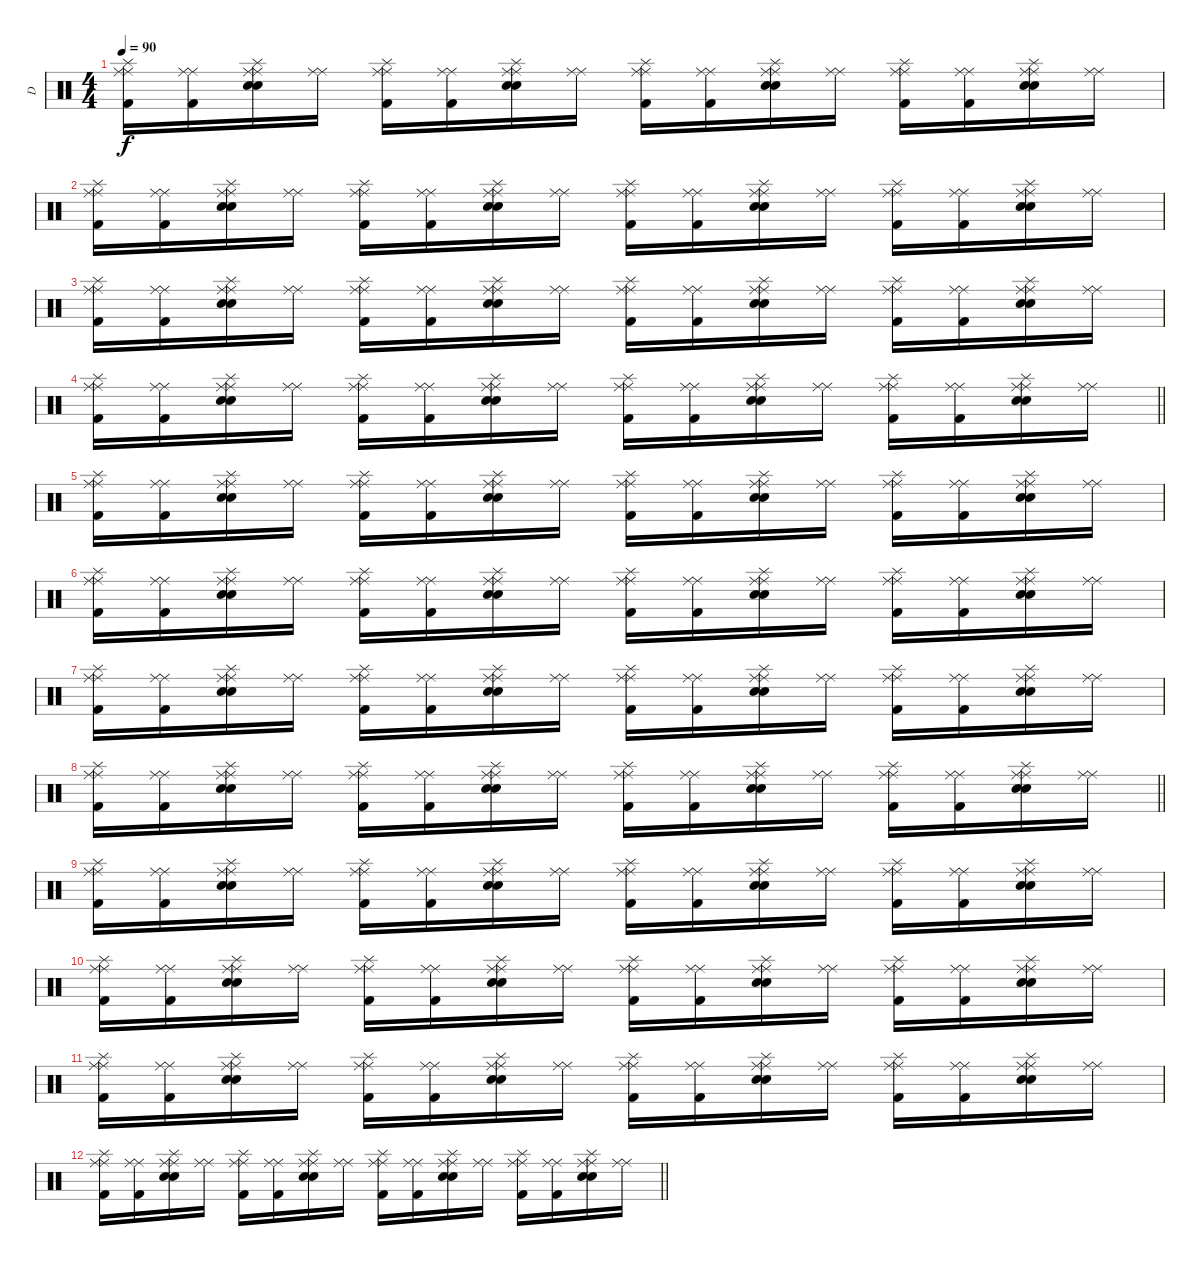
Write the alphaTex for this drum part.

\track ("D" "D") {instrument percussion}
\staff {score}
\articulation defaults
\ts (4 4)
\tempo 90
\clef neutral
\ks c
("Splash (hit)" "Kick (hit) 2" "Ride (middle)" "Ride (middle)").16{dy f} ("Kick (hit) 2" "Ride (middle)" "Ride (middle)").16 ("Splash (hit)" "Electric Snare (hit)" "Electric Snare (hit)" "Ride (middle)" "Ride (middle)").16 ("Ride (middle)" "Ride (middle)").16 ("Splash (hit)" "Kick (hit) 2" "Ride (middle)" "Ride (middle)").16 ("Kick (hit) 2" "Ride (middle)" "Ride (middle)").16 ("Splash (hit)" "Electric Snare (hit)" "Electric Snare (hit)" "Ride (middle)" "Ride (middle)").16 ("Ride (middle)" "Ride (middle)").16 ("Splash (hit)" "Kick (hit) 2" "Ride (middle)" "Ride (middle)").16 ("Kick (hit) 2" "Ride (middle)" "Ride (middle)").16 ("Splash (hit)" "Electric Snare (hit)" "Electric Snare (hit)" "Ride (middle)" "Ride (middle)").16 ("Ride (middle)" "Ride (middle)").16 ("Splash (hit)" "Kick (hit) 2" "Ride (middle)" "Ride (middle)").16 ("Kick (hit) 2" "Ride (middle)" "Ride (middle)").16 ("Splash (hit)" "Electric Snare (hit)" "Electric Snare (hit)" "Ride (middle)" "Ride (middle)").16 ("Ride (middle)" "Ride (middle)").16 |
("Splash (hit)" "Kick (hit) 2" "Ride (middle)" "Ride (middle)").16 ("Kick (hit) 2" "Ride (middle)" "Ride (middle)").16 ("Splash (hit)" "Electric Snare (hit)" "Electric Snare (hit)" "Ride (middle)" "Ride (middle)").16 ("Ride (middle)" "Ride (middle)").16 ("Splash (hit)" "Kick (hit) 2" "Ride (middle)" "Ride (middle)").16 ("Kick (hit) 2" "Ride (middle)" "Ride (middle)").16 ("Splash (hit)" "Electric Snare (hit)" "Electric Snare (hit)" "Ride (middle)" "Ride (middle)").16 ("Ride (middle)" "Ride (middle)").16 ("Splash (hit)" "Kick (hit) 2" "Ride (middle)" "Ride (middle)").16 ("Kick (hit) 2" "Ride (middle)" "Ride (middle)").16 ("Splash (hit)" "Electric Snare (hit)" "Electric Snare (hit)" "Ride (middle)" "Ride (middle)").16 ("Ride (middle)" "Ride (middle)").16 ("Splash (hit)" "Kick (hit) 2" "Ride (middle)" "Ride (middle)").16 ("Kick (hit) 2" "Ride (middle)" "Ride (middle)").16 ("Splash (hit)" "Electric Snare (hit)" "Electric Snare (hit)" "Ride (middle)" "Ride (middle)").16 ("Ride (middle)" "Ride (middle)").16 |
("Splash (hit)" "Kick (hit) 2" "Ride (middle)" "Ride (middle)").16 ("Kick (hit) 2" "Ride (middle)" "Ride (middle)").16 ("Splash (hit)" "Electric Snare (hit)" "Electric Snare (hit)" "Ride (middle)" "Ride (middle)").16 ("Ride (middle)" "Ride (middle)").16 ("Splash (hit)" "Kick (hit) 2" "Ride (middle)" "Ride (middle)").16 ("Kick (hit) 2" "Ride (middle)" "Ride (middle)").16 ("Splash (hit)" "Electric Snare (hit)" "Electric Snare (hit)" "Ride (middle)" "Ride (middle)").16 ("Ride (middle)" "Ride (middle)").16 ("Splash (hit)" "Kick (hit) 2" "Ride (middle)" "Ride (middle)").16 ("Kick (hit) 2" "Ride (middle)" "Ride (middle)").16 ("Splash (hit)" "Electric Snare (hit)" "Electric Snare (hit)" "Ride (middle)" "Ride (middle)").16 ("Ride (middle)" "Ride (middle)").16 ("Splash (hit)" "Kick (hit) 2" "Ride (middle)" "Ride (middle)").16 ("Kick (hit) 2" "Ride (middle)" "Ride (middle)").16 ("Splash (hit)" "Electric Snare (hit)" "Electric Snare (hit)" "Ride (middle)" "Ride (middle)").16 ("Ride (middle)" "Ride (middle)").16 |
\barLineRight lightlight
("Splash (hit)" "Kick (hit) 2" "Ride (middle)" "Ride (middle)").16 ("Kick (hit) 2" "Ride (middle)" "Ride (middle)").16 ("Splash (hit)" "Electric Snare (hit)" "Electric Snare (hit)" "Ride (middle)" "Ride (middle)").16 ("Ride (middle)" "Ride (middle)").16 ("Splash (hit)" "Kick (hit) 2" "Ride (middle)" "Ride (middle)").16 ("Kick (hit) 2" "Ride (middle)" "Ride (middle)").16 ("Splash (hit)" "Electric Snare (hit)" "Electric Snare (hit)" "Ride (middle)" "Ride (middle)").16 ("Ride (middle)" "Ride (middle)").16 ("Splash (hit)" "Kick (hit) 2" "Ride (middle)" "Ride (middle)").16 ("Kick (hit) 2" "Ride (middle)" "Ride (middle)").16 ("Splash (hit)" "Electric Snare (hit)" "Electric Snare (hit)" "Ride (middle)" "Ride (middle)").16 ("Ride (middle)" "Ride (middle)").16 ("Splash (hit)" "Kick (hit) 2" "Ride (middle)" "Ride (middle)").16 ("Kick (hit) 2" "Ride (middle)" "Ride (middle)").16 ("Splash (hit)" "Electric Snare (hit)" "Electric Snare (hit)" "Ride (middle)" "Ride (middle)").16 ("Ride (middle)" "Ride (middle)").16 |
("Splash (hit)" "Kick (hit) 2" "Ride (middle)" "Ride (middle)").16 ("Kick (hit) 2" "Ride (middle)" "Ride (middle)").16 ("Splash (hit)" "Electric Snare (hit)" "Electric Snare (hit)" "Ride (middle)" "Ride (middle)").16 ("Ride (middle)" "Ride (middle)").16 ("Splash (hit)" "Kick (hit) 2" "Ride (middle)" "Ride (middle)").16 ("Kick (hit) 2" "Ride (middle)" "Ride (middle)").16 ("Splash (hit)" "Electric Snare (hit)" "Electric Snare (hit)" "Ride (middle)" "Ride (middle)").16 ("Ride (middle)" "Ride (middle)").16 ("Splash (hit)" "Kick (hit) 2" "Ride (middle)" "Ride (middle)").16 ("Kick (hit) 2" "Ride (middle)" "Ride (middle)").16 ("Splash (hit)" "Electric Snare (hit)" "Electric Snare (hit)" "Ride (middle)" "Ride (middle)").16 ("Ride (middle)" "Ride (middle)").16 ("Splash (hit)" "Kick (hit) 2" "Ride (middle)" "Ride (middle)").16 ("Kick (hit) 2" "Ride (middle)" "Ride (middle)").16 ("Splash (hit)" "Electric Snare (hit)" "Electric Snare (hit)" "Ride (middle)" "Ride (middle)").16 ("Ride (middle)" "Ride (middle)").16 |
("Splash (hit)" "Kick (hit) 2" "Ride (middle)" "Ride (middle)").16 ("Kick (hit) 2" "Ride (middle)" "Ride (middle)").16 ("Splash (hit)" "Electric Snare (hit)" "Electric Snare (hit)" "Ride (middle)" "Ride (middle)").16 ("Ride (middle)" "Ride (middle)").16 ("Splash (hit)" "Kick (hit) 2" "Ride (middle)" "Ride (middle)").16 ("Kick (hit) 2" "Ride (middle)" "Ride (middle)").16 ("Splash (hit)" "Electric Snare (hit)" "Electric Snare (hit)" "Ride (middle)" "Ride (middle)").16 ("Ride (middle)" "Ride (middle)").16 ("Splash (hit)" "Kick (hit) 2" "Ride (middle)" "Ride (middle)").16 ("Kick (hit) 2" "Ride (middle)" "Ride (middle)").16 ("Splash (hit)" "Electric Snare (hit)" "Electric Snare (hit)" "Ride (middle)" "Ride (middle)").16 ("Ride (middle)" "Ride (middle)").16 ("Splash (hit)" "Kick (hit) 2" "Ride (middle)" "Ride (middle)").16 ("Kick (hit) 2" "Ride (middle)" "Ride (middle)").16 ("Splash (hit)" "Electric Snare (hit)" "Electric Snare (hit)" "Ride (middle)" "Ride (middle)").16 ("Ride (middle)" "Ride (middle)").16 |
("Splash (hit)" "Kick (hit) 2" "Ride (middle)" "Ride (middle)").16 ("Kick (hit) 2" "Ride (middle)" "Ride (middle)").16 ("Splash (hit)" "Electric Snare (hit)" "Electric Snare (hit)" "Ride (middle)" "Ride (middle)").16 ("Ride (middle)" "Ride (middle)").16 ("Splash (hit)" "Kick (hit) 2" "Ride (middle)" "Ride (middle)").16 ("Kick (hit) 2" "Ride (middle)" "Ride (middle)").16 ("Splash (hit)" "Electric Snare (hit)" "Electric Snare (hit)" "Ride (middle)" "Ride (middle)").16 ("Ride (middle)" "Ride (middle)").16 ("Splash (hit)" "Kick (hit) 2" "Ride (middle)" "Ride (middle)").16 ("Kick (hit) 2" "Ride (middle)" "Ride (middle)").16 ("Splash (hit)" "Electric Snare (hit)" "Electric Snare (hit)" "Ride (middle)" "Ride (middle)").16 ("Ride (middle)" "Ride (middle)").16 ("Splash (hit)" "Kick (hit) 2" "Ride (middle)" "Ride (middle)").16 ("Kick (hit) 2" "Ride (middle)" "Ride (middle)").16 ("Splash (hit)" "Electric Snare (hit)" "Electric Snare (hit)" "Ride (middle)" "Ride (middle)").16 ("Ride (middle)" "Ride (middle)").16 |
\barLineRight lightlight
("Splash (hit)" "Kick (hit) 2" "Ride (middle)" "Ride (middle)").16 ("Kick (hit) 2" "Ride (middle)" "Ride (middle)").16 ("Splash (hit)" "Electric Snare (hit)" "Electric Snare (hit)" "Ride (middle)" "Ride (middle)").16 ("Ride (middle)" "Ride (middle)").16 ("Splash (hit)" "Kick (hit) 2" "Ride (middle)" "Ride (middle)").16 ("Kick (hit) 2" "Ride (middle)" "Ride (middle)").16 ("Splash (hit)" "Electric Snare (hit)" "Electric Snare (hit)" "Ride (middle)" "Ride (middle)").16 ("Ride (middle)" "Ride (middle)").16 ("Splash (hit)" "Kick (hit) 2" "Ride (middle)" "Ride (middle)").16 ("Kick (hit) 2" "Ride (middle)" "Ride (middle)").16 ("Splash (hit)" "Electric Snare (hit)" "Electric Snare (hit)" "Ride (middle)" "Ride (middle)").16 ("Ride (middle)" "Ride (middle)").16 ("Splash (hit)" "Kick (hit) 2" "Ride (middle)" "Ride (middle)").16 ("Kick (hit) 2" "Ride (middle)" "Ride (middle)").16 ("Splash (hit)" "Electric Snare (hit)" "Electric Snare (hit)" "Ride (middle)" "Ride (middle)").16 ("Ride (middle)" "Ride (middle)").16 |
("Splash (hit)" "Kick (hit) 2" "Ride (middle)" "Ride (middle)").16{volume 0} ("Kick (hit) 2" "Ride (middle)" "Ride (middle)").16 ("Splash (hit)" "Electric Snare (hit)" "Electric Snare (hit)" "Ride (middle)" "Ride (middle)").16 ("Ride (middle)" "Ride (middle)").16 ("Splash (hit)" "Kick (hit) 2" "Ride (middle)" "Ride (middle)").16 ("Kick (hit) 2" "Ride (middle)" "Ride (middle)").16 ("Splash (hit)" "Electric Snare (hit)" "Electric Snare (hit)" "Ride (middle)" "Ride (middle)").16 ("Ride (middle)" "Ride (middle)").16 ("Splash (hit)" "Kick (hit) 2" "Ride (middle)" "Ride (middle)").16 ("Kick (hit) 2" "Ride (middle)" "Ride (middle)").16 ("Splash (hit)" "Electric Snare (hit)" "Electric Snare (hit)" "Ride (middle)" "Ride (middle)").16 ("Ride (middle)" "Ride (middle)").16 ("Splash (hit)" "Kick (hit) 2" "Ride (middle)" "Ride (middle)").16 ("Kick (hit) 2" "Ride (middle)" "Ride (middle)").16 ("Splash (hit)" "Electric Snare (hit)" "Electric Snare (hit)" "Ride (middle)" "Ride (middle)").16 ("Ride (middle)" "Ride (middle)").16 |
("Splash (hit)" "Kick (hit) 2" "Ride (middle)" "Ride (middle)").16 ("Kick (hit) 2" "Ride (middle)" "Ride (middle)").16 ("Splash (hit)" "Electric Snare (hit)" "Electric Snare (hit)" "Ride (middle)" "Ride (middle)").16 ("Ride (middle)" "Ride (middle)").16 ("Splash (hit)" "Kick (hit) 2" "Ride (middle)" "Ride (middle)").16 ("Kick (hit) 2" "Ride (middle)" "Ride (middle)").16 ("Splash (hit)" "Electric Snare (hit)" "Electric Snare (hit)" "Ride (middle)" "Ride (middle)").16 ("Ride (middle)" "Ride (middle)").16 ("Splash (hit)" "Kick (hit) 2" "Ride (middle)" "Ride (middle)").16 ("Kick (hit) 2" "Ride (middle)" "Ride (middle)").16 ("Splash (hit)" "Electric Snare (hit)" "Electric Snare (hit)" "Ride (middle)" "Ride (middle)").16 ("Ride (middle)" "Ride (middle)").16 ("Splash (hit)" "Kick (hit) 2" "Ride (middle)" "Ride (middle)").16 ("Kick (hit) 2" "Ride (middle)" "Ride (middle)").16 ("Splash (hit)" "Electric Snare (hit)" "Electric Snare (hit)" "Ride (middle)" "Ride (middle)").16 ("Ride (middle)" "Ride (middle)").16 |
("Splash (hit)" "Kick (hit) 2" "Ride (middle)" "Ride (middle)").16 ("Kick (hit) 2" "Ride (middle)" "Ride (middle)").16 ("Splash (hit)" "Electric Snare (hit)" "Electric Snare (hit)" "Ride (middle)" "Ride (middle)").16 ("Ride (middle)" "Ride (middle)").16 ("Splash (hit)" "Kick (hit) 2" "Ride (middle)" "Ride (middle)").16 ("Kick (hit) 2" "Ride (middle)" "Ride (middle)").16 ("Splash (hit)" "Electric Snare (hit)" "Electric Snare (hit)" "Ride (middle)" "Ride (middle)").16 ("Ride (middle)" "Ride (middle)").16 ("Splash (hit)" "Kick (hit) 2" "Ride (middle)" "Ride (middle)").16 ("Kick (hit) 2" "Ride (middle)" "Ride (middle)").16 ("Splash (hit)" "Electric Snare (hit)" "Electric Snare (hit)" "Ride (middle)" "Ride (middle)").16 ("Ride (middle)" "Ride (middle)").16 ("Splash (hit)" "Kick (hit) 2" "Ride (middle)" "Ride (middle)").16 ("Kick (hit) 2" "Ride (middle)" "Ride (middle)").16 ("Splash (hit)" "Electric Snare (hit)" "Electric Snare (hit)" "Ride (middle)" "Ride (middle)").16 ("Ride (middle)" "Ride (middle)").16 |
\barLineRight lightlight
("Splash (hit)" "Kick (hit) 2" "Ride (middle)" "Ride (middle)").16 ("Kick (hit) 2" "Ride (middle)" "Ride (middle)").16 ("Splash (hit)" "Electric Snare (hit)" "Electric Snare (hit)" "Ride (middle)" "Ride (middle)").16 ("Ride (middle)" "Ride (middle)").16 ("Splash (hit)" "Kick (hit) 2" "Ride (middle)" "Ride (middle)").16 ("Kick (hit) 2" "Ride (middle)" "Ride (middle)").16 ("Splash (hit)" "Electric Snare (hit)" "Electric Snare (hit)" "Ride (middle)" "Ride (middle)").16 ("Ride (middle)" "Ride (middle)").16 ("Splash (hit)" "Kick (hit) 2" "Ride (middle)" "Ride (middle)").16 ("Kick (hit) 2" "Ride (middle)" "Ride (middle)").16 ("Splash (hit)" "Electric Snare (hit)" "Electric Snare (hit)" "Ride (middle)" "Ride (middle)").16 ("Ride (middle)" "Ride (middle)").16 ("Splash (hit)" "Kick (hit) 2" "Ride (middle)" "Ride (middle)").16 ("Kick (hit) 2" "Ride (middle)" "Ride (middle)").16 ("Splash (hit)" "Electric Snare (hit)" "Electric Snare (hit)" "Ride (middle)" "Ride (middle)").16 ("Ride (middle)" "Ride (middle)").16
